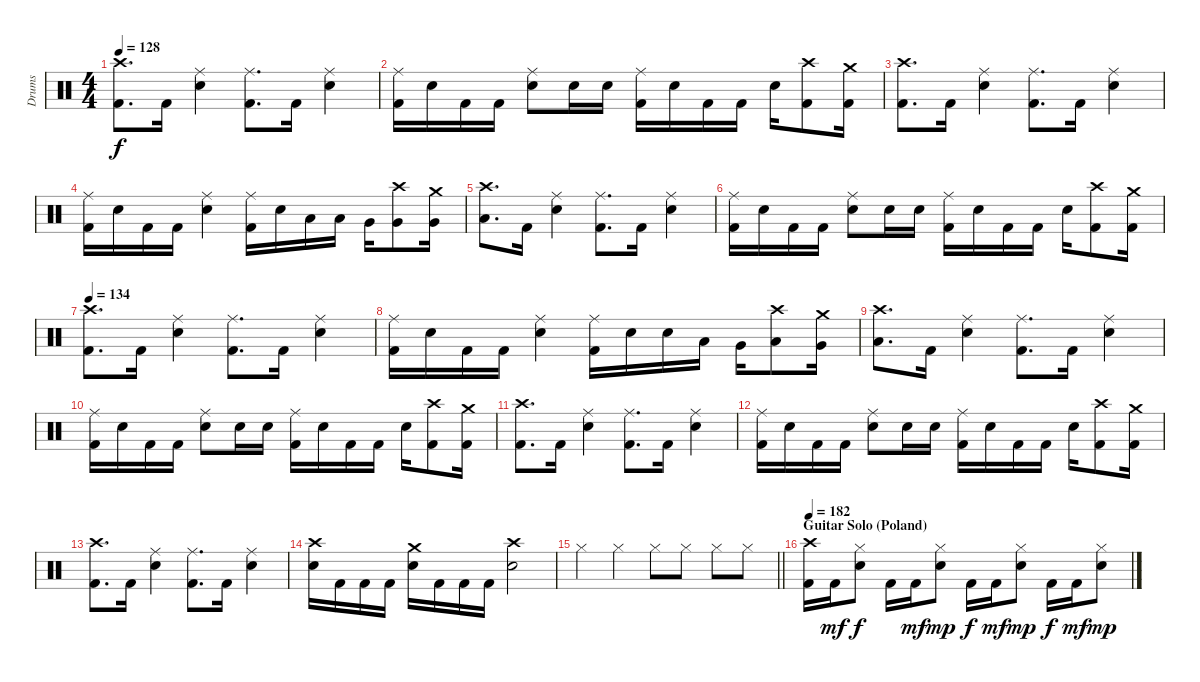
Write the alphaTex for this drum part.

\track ("Drums" "Drums") {instrument percussion}
\staff {score}
\articulation defaults
\ts (4 4)
\tempo 128
\clef neutral
\ks aminor
("Crash high (hit)" "Kick (hit) 2").8{d dy f} "Kick (hit) 2".16 ("Ride (middle)" "Snare (hit) 2").4 ("Ride (middle)" "Kick (hit) 2").8{d} "Kick (hit) 2".16 ("Ride (middle)" "Snare (hit) 2").4 |
("Ride (middle)" "Kick (hit) 2").16 "Snare (hit) 2".16 "Kick (hit) 2".16 "Kick (hit) 2".16 ("Ride (middle)" "Snare (hit) 2").8 "Snare (hit) 2".16 "Snare (hit) 2".16 ("Ride (middle)" "Kick (hit) 2").16 "Snare (hit) 2".16 "Kick (hit) 2".16 "Kick (hit) 2".16 "Snare (hit) 2".16 ("Crash high (hit)" "Kick (hit) 2").8 ("Crash medium (hit)" "Kick (hit) 2").16 |
("Crash high (hit)" "Kick (hit) 2").8{d} "Kick (hit) 2".16 ("Ride (middle)" "Snare (hit) 2").4 ("Ride (middle)" "Kick (hit) 2").8{d} "Kick (hit) 2".16 ("Ride (middle)" "Snare (hit) 2").4 |
("Ride (middle)" "Kick (hit) 2").16 "Snare (hit) 2".16 "Kick (hit) 2".16 "Kick (hit) 2".16 ("Ride (middle)" "Snare (hit) 2").4 ("Ride (middle)" "Kick (hit) 2").16 "Snare (hit) 2".16 "Low Tom (hit)".16 "Low Tom (hit)".16 "Very Low Tom (hit)".16 ("Crash high (hit)" "Very Low Tom (hit)").8 ("Crash medium (hit)" "Very Low Tom (hit)").16 |
("Crash high (hit)" "Low Floor Tom (hit)").8{d} "Kick (hit) 2".16 ("Ride (middle)" "Snare (hit) 2").4 ("Ride (middle)" "Kick (hit) 2").8{d} "Kick (hit) 2".16 ("Ride (middle)" "Snare (hit) 2").4 |
("Ride (middle)" "Kick (hit) 2").16 "Snare (hit) 2".16 "Kick (hit) 2".16 "Kick (hit) 2".16 ("Ride (middle)" "Snare (hit) 2").8 "Snare (hit) 2".16 "Snare (hit) 2".16 ("Ride (middle)" "Kick (hit) 2").16 "Snare (hit) 2".16 "Kick (hit) 2".16 "Kick (hit) 2".16 "Snare (hit) 2".16 ("Crash high (hit)" "Kick (hit) 2").8 ("Crash medium (hit)" "Kick (hit) 2").16 |
\tempo 134
("Crash high (hit)" "Kick (hit) 2").8{d} "Kick (hit) 2".16 ("Ride (middle)" "Snare (hit) 2").4 ("Ride (middle)" "Kick (hit) 2").8{d} "Kick (hit) 2".16 ("Ride (middle)" "Snare (hit) 2").4 |
("Ride (middle)" "Kick (hit) 2").16 "Snare (hit) 2".16 "Kick (hit) 2".16 "Kick (hit) 2".16 ("Ride (middle)" "Snare (hit) 2").4 ("Ride (middle)" "Kick (hit) 2").16 "Snare (hit) 2".16 "Snare (hit) 2".16 "Low Tom (hit)".16 "Very Low Tom (hit)".16 ("Crash high (hit)" "Low Floor Tom (hit)").8 ("Crash medium (hit)" "Very Low Tom (hit)").16 |
("Crash high (hit)" "Low Floor Tom (hit)").8{d} "Kick (hit) 2".16 ("Ride (middle)" "Snare (hit) 2").4 ("Ride (middle)" "Kick (hit) 2").8{d} "Kick (hit) 2".16 ("Ride (middle)" "Snare (hit) 2").4 |
("Ride (middle)" "Kick (hit) 2").16 "Snare (hit) 2".16 "Kick (hit) 2".16 "Kick (hit) 2".16 ("Ride (middle)" "Snare (hit) 2").8 "Snare (hit) 2".16 "Snare (hit) 2".16 ("Ride (middle)" "Kick (hit) 2").16 "Snare (hit) 2".16 "Kick (hit) 2".16 "Kick (hit) 2".16 "Snare (hit) 2".16 ("Crash high (hit)" "Kick (hit) 2").8 ("Crash medium (hit)" "Kick (hit) 2").16 |
("Crash high (hit)" "Kick (hit) 2").8{d} "Kick (hit) 2".16 ("Ride (middle)" "Snare (hit) 2").4 ("Ride (middle)" "Kick (hit) 2").8{d} "Kick (hit) 2".16 ("Ride (middle)" "Snare (hit) 2").4 |
("Ride (middle)" "Kick (hit) 2").16 "Snare (hit) 2".16 "Kick (hit) 2".16 "Kick (hit) 2".16 ("Ride (middle)" "Snare (hit) 2").8 "Snare (hit) 2".16 "Snare (hit) 2".16 ("Ride (middle)" "Kick (hit) 2").16 "Snare (hit) 2".16 "Kick (hit) 2".16 "Kick (hit) 2".16 "Snare (hit) 2".16 ("Crash high (hit)" "Kick (hit) 2").8 ("Crash medium (hit)" "Kick (hit) 2").16 |
("Crash high (hit)" "Kick (hit) 2").8{d} "Kick (hit) 2".16 ("Ride (middle)" "Snare (hit) 2").4 ("Ride (middle)" "Kick (hit) 2").8{d} "Kick (hit) 2".16 ("Ride (middle)" "Snare (hit) 2").4 |
("Crash high (hit)" "Snare (hit) 2").16 "Kick (hit) 2".16 "Kick (hit) 2".16 "Kick (hit) 2".16 ("Crash medium (hit)" "Snare (hit) 2").16 "Kick (hit) 2".16 "Kick (hit) 2".16 "Kick (hit) 2".16 ("Crash high (hit)" "Snare (hit) 2").2 |
\barLineRight lightlight "Hi-Hat (closed)".4 "Hi-Hat (closed)".4 "Hi-Hat (closed)".8 "Hi-Hat (closed)".8 "Hi-Hat (closed)".8 "Hi-Hat (closed)".8
|
\section ("" "Guitar Solo (Poland)")
\tempo 182
\ks c
("Crash high (hit)" "Kick (hit) 2").16 "Kick (hit) 2".16{dy mf} ("Hi-Hat (closed)" "Snare (hit) 2").8{dy f} "Kick (hit) 2".16 "Kick (hit) 2".16{dy mf} ("Hi-Hat (closed)" "Snare (hit) 2").8{dy mp} "Kick (hit) 2".16{dy f} "Kick (hit) 2".16{dy mf} ("Hi-Hat (closed)" "Snare (hit) 2").8{dy mp} "Kick (hit) 2".16{dy f} "Kick (hit) 2".16{dy mf} ("Hi-Hat (closed)" "Snare (hit) 2").8{dy mp}
